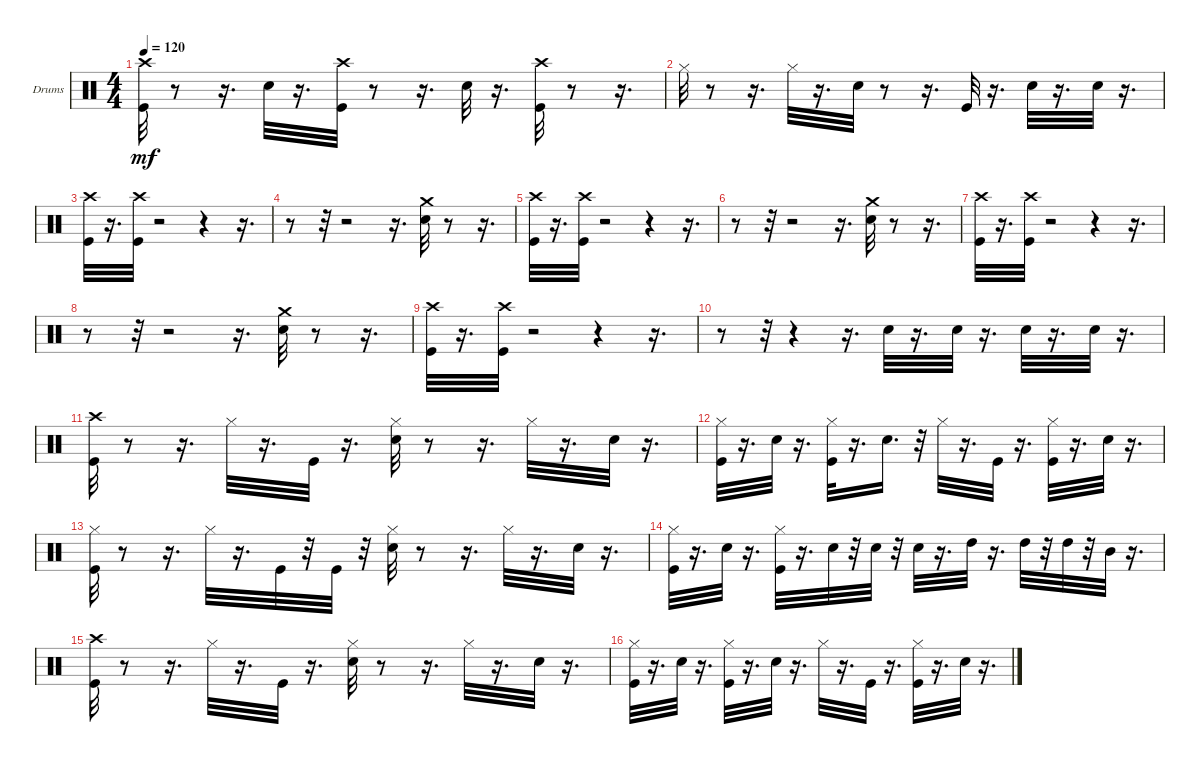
\bracketExtendMode groupsimilarinstruments
\firstSystemTrackNameOrientation horizontal
\otherSystemsTrackNameOrientation horizontal
\track ("" "Drums") {instrument percussion}
\staff {score}
\articulation defaults
\ts (4 4)
\tempo 120
\clef neutral
\ks c
("Crash high (hit)" "Kick (hit)").32{dy mf} r.8 r.16{d} "Snare (hit) 2".32 r.16{d} ("Crash high (hit)" "Kick (hit)").32 r.8 r.16{d} "Snare (hit) 2".32 r.16{d} ("Crash high (hit)" "Kick (hit)").32 r.8 r.16{d} |
"Hi-Hat (closed)".32 r.8 r.16{d} "Hi-Hat (closed)".32 r.16{d} "Snare (hit) 2".32 r.8 r.16{d} "Kick (hit)".32 r.16{d} "Snare (hit) 2".32 r.16{d} "Snare (hit) 2".32 r.16{d} |
("Crash high (hit)" "Kick (hit)").32 r.16{d} ("Crash high (hit)" "Kick (hit)").32 r.2 r.4 r.16{d} |
r.8 r.32 r.2 r.16{d} ("Crash medium (hit)" "Snare (hit) 2").32 r.8 r.16{d} |
("Crash high (hit)" "Kick (hit)").32 r.16{d} ("Crash high (hit)" "Kick (hit)").32 r.2 r.4 r.16{d} |
r.8 r.32 r.2 r.16{d} ("Crash medium (hit)" "Snare (hit) 2").32 r.8 r.16{d} |
("Crash high (hit)" "Kick (hit)").32 r.16{d} ("Crash high (hit)" "Kick (hit)").32 r.2 r.4 r.16{d} |
r.8 r.32 r.2 r.16{d} ("Crash medium (hit)" "Snare (hit) 2").32 r.8 r.16{d} |
("Crash high (hit)" "Kick (hit)").32 r.16{d} ("Crash high (hit)" "Kick (hit)").32 r.2 r.4 r.16{d} |
r.8 r.32 r.4 r.16{d} "Snare (hit) 2".32 r.16{d} "Snare (hit) 2".32 r.16{d} "Snare (hit) 2".32 r.16{d} "Snare (hit) 2".32 r.16{d} |
("Crash high (hit)" "Kick (hit)").32 r.8 r.16{d} "Hi-Hat (closed)".32 r.16{d} "Kick (hit)".32 r.16{d} ("Snare (hit) 2" "Hi-Hat (closed)").32 r.8 r.16{d} "Hi-Hat (closed)".32 r.16{d} "Snare (hit) 2".32 r.16{d} |
("Hi-Hat (closed)" "Kick (hit)").32 r.16{d} "Snare (hit) 2".32 r.16{d} ("Hi-Hat (closed)" "Kick (hit)").32 r.16{d} "Snare (hit) 2".16{d} r.32 "Hi-Hat (closed)".32 r.16{d} "Kick (hit)".32 r.16{d} ("Kick (hit)" "Hi-Hat (closed)").32 r.16{d} "Snare (hit) 2".32 r.16{d} |
("Hi-Hat (closed)" "Kick (hit)").32 r.8 r.16{d} "Hi-Hat (closed)".32 r.16{d} "Kick (hit)".32 r.32 "Kick (hit)".32 r.32 ("Snare (hit) 2" "Hi-Hat (closed)").32 r.8 r.16{d} "Hi-Hat (closed)".32 r.16{d} "Snare (hit) 2".32 r.16{d} |
("Hi-Hat (closed)" "Kick (hit)").32 r.16{d} "Snare (hit) 2".32 r.16{d} ("Hi-Hat (closed)" "Kick (hit)").32 r.16{d} "Snare (hit) 2".32 r.32 "Snare (hit) 2".32 r.32 "Snare (hit) 2".32 r.16{d} "High Tom (hit)".32 r.16{d} "High Tom (hit)".32 r.32 "High Tom (hit)".32 r.32 "Mid Tom (hit)".32 r.16{d} |
("Crash high (hit)" "Kick (hit)").32 r.8 r.16{d} "Hi-Hat (closed)".32 r.16{d} "Kick (hit)".32 r.16{d} ("Snare (hit) 2" "Hi-Hat (closed)").32 r.8 r.16{d} "Hi-Hat (closed)".32 r.16{d} "Snare (hit) 2".32 r.16{d} |
("Hi-Hat (closed)" "Kick (hit)").32 r.16{d} "Snare (hit) 2".32 r.16{d} ("Hi-Hat (closed)" "Kick (hit)").32 r.16{d} "Snare (hit) 2".32 r.16{d} "Hi-Hat (closed)".32 r.16{d} "Kick (hit)".32 r.16{d} ("Kick (hit)" "Hi-Hat (closed)").32 r.16{d} "Snare (hit) 2".32 r.16{d}
